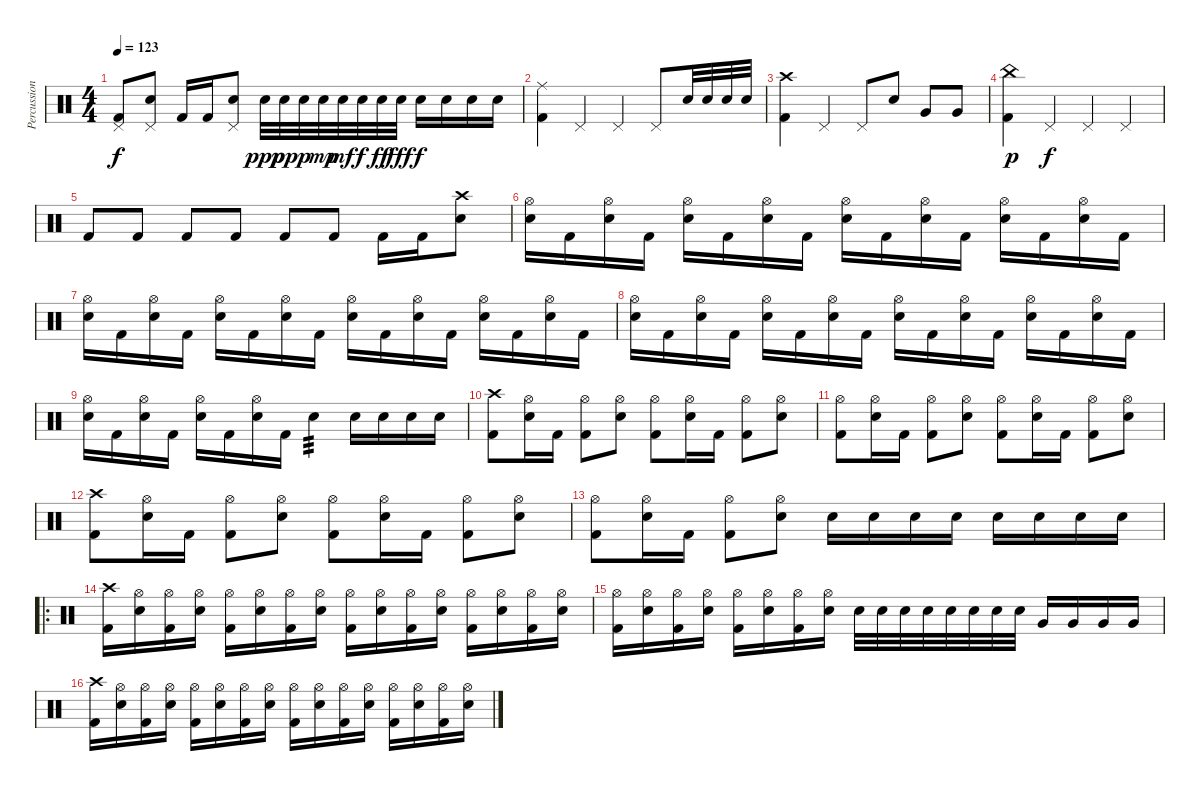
\track ("Percussion" "Percussion") {instrument percussion}
\staff {score}
\articulation defaults
\ts (4 4)
\tempo 123
\clef neutral
\ks c
("Pedal Hi-Hat (hit)" "Kick (hit) 2").8{dy f} ("Pedal Hi-Hat (hit)" "Electric Snare (hit)").8 "Kick (hit) 2".16 "Kick (hit) 2".16 ("Pedal Hi-Hat (hit)" "Electric Snare (hit)").8 "Electric Snare (hit)".32{dy ppp} "Electric Snare (hit)".32{dy pp} "Electric Snare (hit)".32{dy p} "Electric Snare (hit)".32{dy mp} "Electric Snare (hit)".32{dy mf} "Electric Snare (hit)".32{dy f} "Electric Snare (hit)".32{dy ff} "Electric Snare (hit)".32{dy fff} "Electric Snare (hit)".16{dy f} "Electric Snare (hit)".16 "Electric Snare (hit)".16 "Electric Snare (hit)".16 |
("Ride (middle)" "Kick (hit) 2").4 "Pedal Hi-Hat (hit)".4 "Pedal Hi-Hat (hit)".4 "Pedal Hi-Hat (hit)".8 "Electric Snare (hit)".32 "Electric Snare (hit)".32 "Electric Snare (hit)".32 "Electric Snare (hit)".32 |
("Crash high (hit)" "Kick (hit) 2").4 "Pedal Hi-Hat (hit)".4 "Pedal Hi-Hat (hit)".8 "Electric Snare (hit)".8 "Very Low Tom (hit)".8 "Very Low Tom (hit)".8 |
("China (hit)" "Kick (hit) 2").4{dy p} "Pedal Hi-Hat (hit)".4{dy f} "Pedal Hi-Hat (hit)".4 "Pedal Hi-Hat (hit)".4 |
"Kick (hit) 2".8 "Kick (hit) 2".8 "Kick (hit) 2".8 "Kick (hit) 2".8 "Kick (hit) 2".8 "Kick (hit) 2".8 "Kick (hit) 2".16 "Kick (hit) 2".16 ("Crash high (hit)" "Electric Snare (hit)").8 |
("Hi-Hat (open)" "Electric Snare (hit)").16 "Kick (hit) 2".16 ("Hi-Hat (open)" "Electric Snare (hit)").16 "Kick (hit) 2".16 ("Hi-Hat (open)" "Electric Snare (hit)").16 "Kick (hit) 2".16 ("Hi-Hat (open)" "Electric Snare (hit)").16 "Kick (hit) 2".16 ("Hi-Hat (open)" "Electric Snare (hit)").16 "Kick (hit) 2".16 ("Hi-Hat (open)" "Electric Snare (hit)").16 "Kick (hit) 2".16 ("Hi-Hat (open)" "Electric Snare (hit)").16 "Kick (hit) 2".16 ("Hi-Hat (open)" "Electric Snare (hit)").16 "Kick (hit) 2".16 |
("Hi-Hat (open)" "Electric Snare (hit)").16 "Kick (hit) 2".16 ("Hi-Hat (open)" "Electric Snare (hit)").16 "Kick (hit) 2".16 ("Hi-Hat (open)" "Electric Snare (hit)").16 "Kick (hit) 2".16 ("Hi-Hat (open)" "Electric Snare (hit)").16 "Kick (hit) 2".16 ("Hi-Hat (open)" "Electric Snare (hit)").16 "Kick (hit) 2".16 ("Hi-Hat (open)" "Electric Snare (hit)").16 "Kick (hit) 2".16 ("Hi-Hat (open)" "Electric Snare (hit)").16 "Kick (hit) 2".16 ("Hi-Hat (open)" "Electric Snare (hit)").16 "Kick (hit) 2".16 |
("Hi-Hat (open)" "Electric Snare (hit)").16 "Kick (hit) 2".16 ("Hi-Hat (open)" "Electric Snare (hit)").16 "Kick (hit) 2".16 ("Hi-Hat (open)" "Electric Snare (hit)").16 "Kick (hit) 2".16 ("Hi-Hat (open)" "Electric Snare (hit)").16 "Kick (hit) 2".16 ("Hi-Hat (open)" "Electric Snare (hit)").16 "Kick (hit) 2".16 ("Hi-Hat (open)" "Electric Snare (hit)").16 "Kick (hit) 2".16 ("Hi-Hat (open)" "Electric Snare (hit)").16 "Kick (hit) 2".16 ("Hi-Hat (open)" "Electric Snare (hit)").16 "Kick (hit) 2".16 |
("Hi-Hat (open)" "Electric Snare (hit)").16 "Kick (hit) 2".16 ("Hi-Hat (open)" "Electric Snare (hit)").16 "Kick (hit) 2".16 ("Hi-Hat (open)" "Electric Snare (hit)").16 "Kick (hit) 2".16 ("Hi-Hat (open)" "Electric Snare (hit)").16 "Kick (hit) 2".16 "Electric Snare (hit)".4{tp 3} "Electric Snare (hit)".16 "Electric Snare (hit)".16 "Electric Snare (hit)".16 "Electric Snare (hit)".16 |
("Crash high (hit)" "Kick (hit) 2").8 ("Hi-Hat (open)" "Electric Snare (hit)").16 "Kick (hit) 2".16 ("Hi-Hat (open)" "Kick (hit) 2").8 ("Hi-Hat (open)" "Electric Snare (hit)").8 ("Hi-Hat (open)" "Kick (hit) 2").8 ("Hi-Hat (open)" "Electric Snare (hit)").16 "Kick (hit) 2".16 ("Hi-Hat (open)" "Kick (hit) 2").8 ("Hi-Hat (open)" "Electric Snare (hit)").8 |
("Hi-Hat (open)" "Kick (hit) 2").8 ("Hi-Hat (open)" "Electric Snare (hit)").16 "Kick (hit) 2".16 ("Hi-Hat (open)" "Kick (hit) 2").8 ("Hi-Hat (open)" "Electric Snare (hit)").8 ("Hi-Hat (open)" "Kick (hit) 2").8 ("Hi-Hat (open)" "Electric Snare (hit)").16 "Kick (hit) 2".16 ("Hi-Hat (open)" "Kick (hit) 2").8 ("Hi-Hat (open)" "Electric Snare (hit)").8 |
("Crash high (hit)" "Kick (hit) 2").8 ("Hi-Hat (open)" "Electric Snare (hit)").16 "Kick (hit) 2".16 ("Hi-Hat (open)" "Kick (hit) 2").8 ("Hi-Hat (open)" "Electric Snare (hit)").8 ("Hi-Hat (open)" "Kick (hit) 2").8 ("Hi-Hat (open)" "Electric Snare (hit)").16 "Kick (hit) 2".16 ("Hi-Hat (open)" "Kick (hit) 2").8 ("Hi-Hat (open)" "Electric Snare (hit)").8 |
("Hi-Hat (open)" "Kick (hit) 2").8 ("Hi-Hat (open)" "Electric Snare (hit)").16 "Kick (hit) 2".16 ("Hi-Hat (open)" "Kick (hit) 2").8 ("Hi-Hat (open)" "Electric Snare (hit)").8 "Electric Snare (hit)".16 "Electric Snare (hit)".16 "Electric Snare (hit)".16 "Electric Snare (hit)".16 "Electric Snare (hit)".16 "Electric Snare (hit)".16 "Electric Snare (hit)".16 "Electric Snare (hit)".16 |
\ro
("Crash high (hit)" "Kick (hit) 2").16 ("Hi-Hat (open)" "Electric Snare (hit)").16 ("Hi-Hat (open)" "Kick (hit) 2").16 ("Hi-Hat (open)" "Electric Snare (hit)").16 ("Hi-Hat (open)" "Kick (hit) 2").16 ("Hi-Hat (open)" "Electric Snare (hit)").16 ("Hi-Hat (open)" "Kick (hit) 2").16 ("Hi-Hat (open)" "Electric Snare (hit)").16 ("Hi-Hat (open)" "Kick (hit) 2").16 ("Hi-Hat (open)" "Electric Snare (hit)").16 ("Hi-Hat (open)" "Kick (hit) 2").16 ("Hi-Hat (open)" "Electric Snare (hit)").16 ("Hi-Hat (open)" "Kick (hit) 2").16 ("Hi-Hat (open)" "Electric Snare (hit)").16 ("Hi-Hat (open)" "Kick (hit) 2").16 ("Hi-Hat (open)" "Electric Snare (hit)").16 |
("Hi-Hat (open)" "Kick (hit) 2").16 ("Hi-Hat (open)" "Electric Snare (hit)").16 ("Hi-Hat (open)" "Kick (hit) 2").16 ("Hi-Hat (open)" "Electric Snare (hit)").16 ("Hi-Hat (open)" "Kick (hit) 2").16 ("Hi-Hat (open)" "Electric Snare (hit)").16 ("Hi-Hat (open)" "Kick (hit) 2").16 ("Hi-Hat (open)" "Electric Snare (hit)").16 "Electric Snare (hit)".32 "Electric Snare (hit)".32 "Electric Snare (hit)".32 "Electric Snare (hit)".32 "Electric Snare (hit)".32 "Electric Snare (hit)".32 "Electric Snare (hit)".32 "Electric Snare (hit)".32 "Very Low Tom (hit)".16 "Very Low Tom (hit)".16 "Very Low Tom (hit)".16 "Very Low Tom (hit)".16 |
("Crash high (hit)" "Kick (hit) 2").16 ("Hi-Hat (open)" "Electric Snare (hit)").16 ("Hi-Hat (open)" "Kick (hit) 2").16 ("Hi-Hat (open)" "Electric Snare (hit)").16 ("Hi-Hat (open)" "Kick (hit) 2").16 ("Hi-Hat (open)" "Electric Snare (hit)").16 ("Hi-Hat (open)" "Kick (hit) 2").16 ("Hi-Hat (open)" "Electric Snare (hit)").16 ("Hi-Hat (open)" "Kick (hit) 2").16 ("Hi-Hat (open)" "Electric Snare (hit)").16 ("Hi-Hat (open)" "Kick (hit) 2").16 ("Hi-Hat (open)" "Electric Snare (hit)").16 ("Hi-Hat (open)" "Kick (hit) 2").16 ("Hi-Hat (open)" "Electric Snare (hit)").16 ("Hi-Hat (open)" "Kick (hit) 2").16 ("Hi-Hat (open)" "Electric Snare (hit)").16
